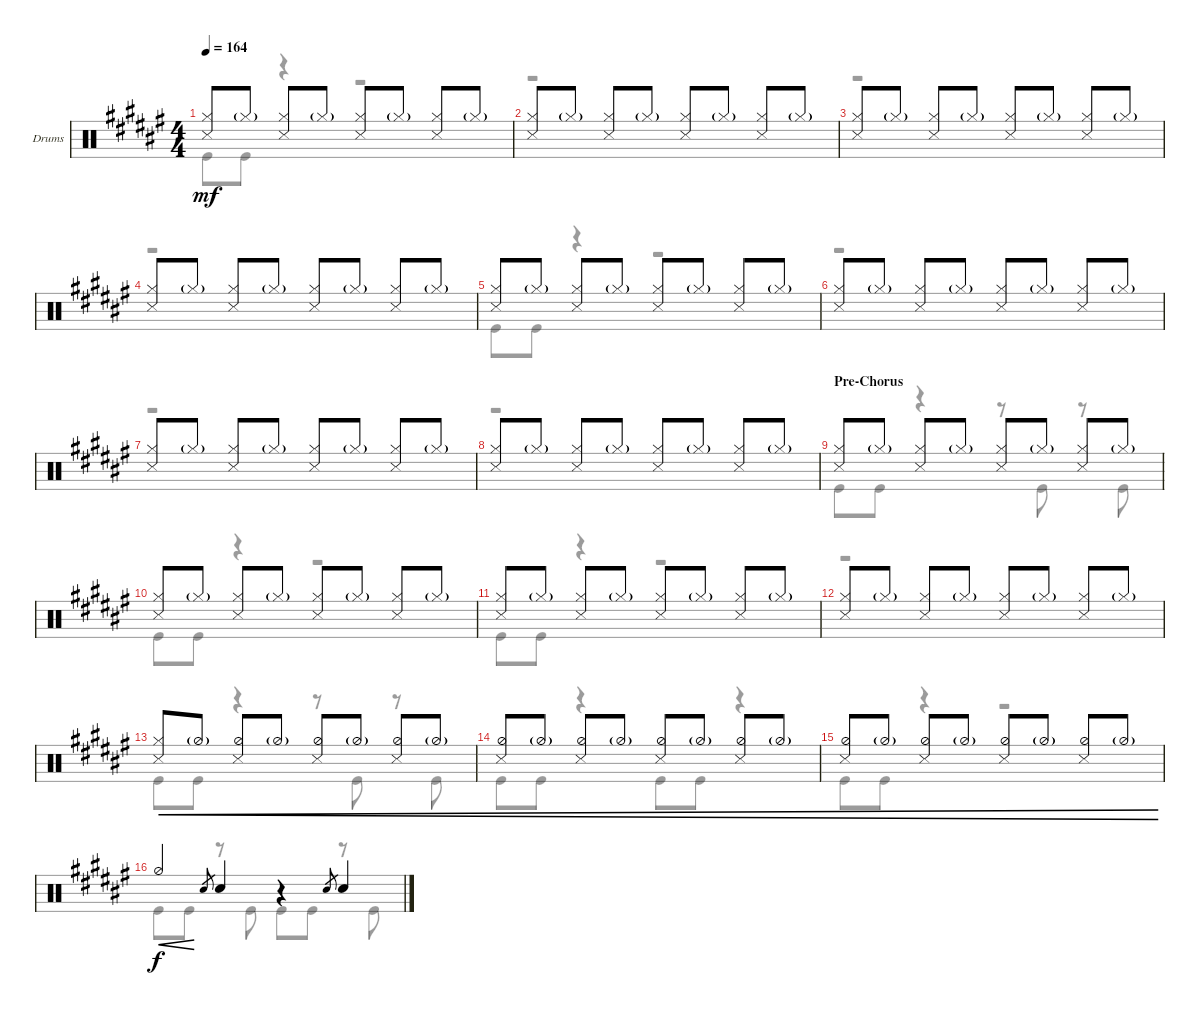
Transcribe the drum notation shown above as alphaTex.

\defaultSystemsLayout 4
\bracketExtendMode groupsimilarinstruments
\firstSystemTrackNameOrientation horizontal
\otherSystemsTrackNameOrientation horizontal
\track ("Drums" "Drums") {instrument percussion}
\staff {score}
\articulation defaults
\voice
\ts (4 4)
\tempo 164
\clef neutral
\ks f#
("Hi-Hat (closed)" "Snare (side stick) 3").8{dy mf} "Hi-Hat (closed)"{g}.8 ("Hi-Hat (closed)" "Snare (side stick) 3").8 "Hi-Hat (closed)"{g}.8 ("Hi-Hat (closed)" "Snare (side stick) 3").8 "Hi-Hat (closed)"{g}.8 ("Hi-Hat (closed)" "Snare (side stick) 3").8 "Hi-Hat (closed)"{g}.8 |
("Hi-Hat (closed)" "Snare (side stick) 3").8 "Hi-Hat (closed)"{g}.8 ("Hi-Hat (closed)" "Snare (side stick) 3").8 "Hi-Hat (closed)"{g}.8 ("Hi-Hat (closed)" "Snare (side stick) 3").8 "Hi-Hat (closed)"{g}.8 ("Hi-Hat (closed)" "Snare (side stick) 3").8 "Hi-Hat (closed)"{g}.8 |
("Hi-Hat (closed)" "Snare (side stick) 3").8 "Hi-Hat (closed)"{g}.8 ("Hi-Hat (closed)" "Snare (side stick) 3").8 "Hi-Hat (closed)"{g}.8 ("Hi-Hat (closed)" "Snare (side stick) 3").8 "Hi-Hat (closed)"{g}.8 ("Hi-Hat (closed)" "Snare (side stick) 3").8 "Hi-Hat (closed)"{g}.8 |
("Hi-Hat (closed)" "Snare (side stick) 3").8 "Hi-Hat (closed)"{g}.8 ("Hi-Hat (closed)" "Snare (side stick) 3").8 "Hi-Hat (closed)"{g}.8 ("Hi-Hat (closed)" "Snare (side stick) 3").8 "Hi-Hat (closed)"{g}.8 ("Hi-Hat (closed)" "Snare (side stick) 3").8 "Hi-Hat (closed)"{g}.8 |
("Hi-Hat (closed)" "Snare (side stick) 3").8 "Hi-Hat (closed)"{g}.8 ("Hi-Hat (closed)" "Snare (side stick) 3").8 "Hi-Hat (closed)"{g}.8 ("Hi-Hat (closed)" "Snare (side stick) 3").8 "Hi-Hat (closed)"{g}.8 ("Hi-Hat (closed)" "Snare (side stick) 3").8 "Hi-Hat (closed)"{g}.8 |
("Hi-Hat (closed)" "Snare (side stick) 3").8 "Hi-Hat (closed)"{g}.8 ("Hi-Hat (closed)" "Snare (side stick) 3").8 "Hi-Hat (closed)"{g}.8 ("Hi-Hat (closed)" "Snare (side stick) 3").8 "Hi-Hat (closed)"{g}.8 ("Hi-Hat (closed)" "Snare (side stick) 3").8 "Hi-Hat (closed)"{g}.8 |
("Hi-Hat (closed)" "Snare (side stick) 3").8 "Hi-Hat (closed)"{g}.8 ("Hi-Hat (closed)" "Snare (side stick) 3").8 "Hi-Hat (closed)"{g}.8 ("Hi-Hat (closed)" "Snare (side stick) 3").8 "Hi-Hat (closed)"{g}.8 ("Hi-Hat (closed)" "Snare (side stick) 3").8 "Hi-Hat (closed)"{g}.8 |
("Hi-Hat (closed)" "Snare (side stick) 3").8 "Hi-Hat (closed)"{g}.8 ("Hi-Hat (closed)" "Snare (side stick) 3").8 "Hi-Hat (closed)"{g}.8 ("Hi-Hat (closed)" "Snare (side stick) 3").8 "Hi-Hat (closed)"{g}.8 ("Hi-Hat (closed)" "Snare (side stick) 3").8 "Hi-Hat (closed)"{g}.8 |
\section ("" "Pre-Chorus")
("Hi-Hat (closed)" "Snare (side stick) 3").8 "Hi-Hat (closed)"{g}.8 ("Hi-Hat (closed)" "Snare (side stick) 3").8 "Hi-Hat (closed)"{g}.8 ("Hi-Hat (closed)" "Snare (side stick) 3").8 "Hi-Hat (closed)"{g}.8 ("Hi-Hat (closed)" "Snare (side stick) 3").8 "Hi-Hat (closed)"{g}.8 |
("Hi-Hat (closed)" "Snare (side stick) 3").8 "Hi-Hat (closed)"{g}.8 ("Hi-Hat (closed)" "Snare (side stick) 3").8 "Hi-Hat (closed)"{g}.8 ("Hi-Hat (closed)" "Snare (side stick) 3").8 "Hi-Hat (closed)"{g}.8 ("Hi-Hat (closed)" "Snare (side stick) 3").8 "Hi-Hat (closed)"{g}.8 |
("Hi-Hat (closed)" "Snare (side stick) 3").8 "Hi-Hat (closed)"{g}.8 ("Hi-Hat (closed)" "Snare (side stick) 3").8 "Hi-Hat (closed)"{g}.8 ("Hi-Hat (closed)" "Snare (side stick) 3").8 "Hi-Hat (closed)"{g}.8 ("Hi-Hat (closed)" "Snare (side stick) 3").8 "Hi-Hat (closed)"{g}.8 |
("Hi-Hat (closed)" "Snare (side stick) 3").8 "Hi-Hat (closed)"{g}.8 ("Hi-Hat (closed)" "Snare (side stick) 3").8 "Hi-Hat (closed)"{g}.8 ("Hi-Hat (closed)" "Snare (side stick) 3").8 "Hi-Hat (closed)"{g}.8 ("Hi-Hat (closed)" "Snare (side stick) 3").8 "Hi-Hat (closed)"{g}.8 |
("Hi-Hat (closed)" "Snare (side stick) 3").8{cre} "Hi-Hat (half)"{g}.8{cre} ("Hi-Hat (half)" "Snare (side stick) 3").8{cre} "Hi-Hat (half)"{g}.8{cre} ("Hi-Hat (half)" "Snare (side stick) 3").8{cre} "Hi-Hat (half)"{g}.8{cre} ("Hi-Hat (half)" "Snare (side stick) 3").8{cre} "Hi-Hat (half)"{g}.8{cre} |
("Hi-Hat (half)" "Snare (side stick) 3").8{cre} "Hi-Hat (half)"{g}.8{cre} ("Hi-Hat (half)" "Snare (side stick) 3").8{cre} "Hi-Hat (half)"{g}.8{cre} ("Hi-Hat (half)" "Snare (side stick) 3").8{cre} "Hi-Hat (half)"{g}.8{cre} ("Hi-Hat (half)" "Snare (side stick) 3").8{cre} "Hi-Hat (half)"{g}.8{cre} |
("Hi-Hat (half)" "Snare (side stick) 3").8{cre} "Hi-Hat (half)"{g}.8{cre} ("Hi-Hat (half)" "Snare (side stick) 3").8{cre} "Hi-Hat (half)"{g}.8{cre} ("Hi-Hat (half)" "Snare (side stick) 3").8{cre} "Hi-Hat (half)"{g}.8{cre} ("Hi-Hat (half)" "Snare (side stick) 3").8{cre} "Hi-Hat (half)"{g}.8{cre} |
"Hi-Hat (half)".4{cre dy f} "Snare (hit) 2".8{gr} "Snare (hit) 2".4 r.4 "Snare (hit) 2".8{gr} "Snare (hit) 2".4
\voice
\clef neutral
\ottava regular
\simile none
\ks f# "Kick (hit)".8{dy mf} "Kick (hit)".8
r.4 r.2 |
r.1 |
r.1 |
r.1 |
"Kick (hit)".8 "Kick (hit)".8 r.4 r.2 |
r.1 |
r.1 |
r.1 |
"Kick (hit)".8 "Kick (hit)".8 r.4 r.8 "Kick (hit)".8 r.8 "Kick (hit)".8 |
"Kick (hit)".8 "Kick (hit)".8 r.4 r.2 |
"Kick (hit)".8 "Kick (hit)".8 r.4 r.2 |
r.1 |
"Kick (hit)".8 "Kick (hit)".8 r.4 r.8 "Kick (hit)".8 r.8 "Kick (hit)".8 |
"Kick (hit)".8 "Kick (hit)".8 r.4 "Kick (hit)".8 "Kick (hit)".8 r.4 |
"Kick (hit)".8 "Kick (hit)".8 r.4 r.2 |
"Kick (hit)".8{dy f} "Kick (hit)".8 r.8 "Kick (hit)".8 "Kick (hit)".8 "Kick (hit)".8 r.8 "Kick (hit)".8
